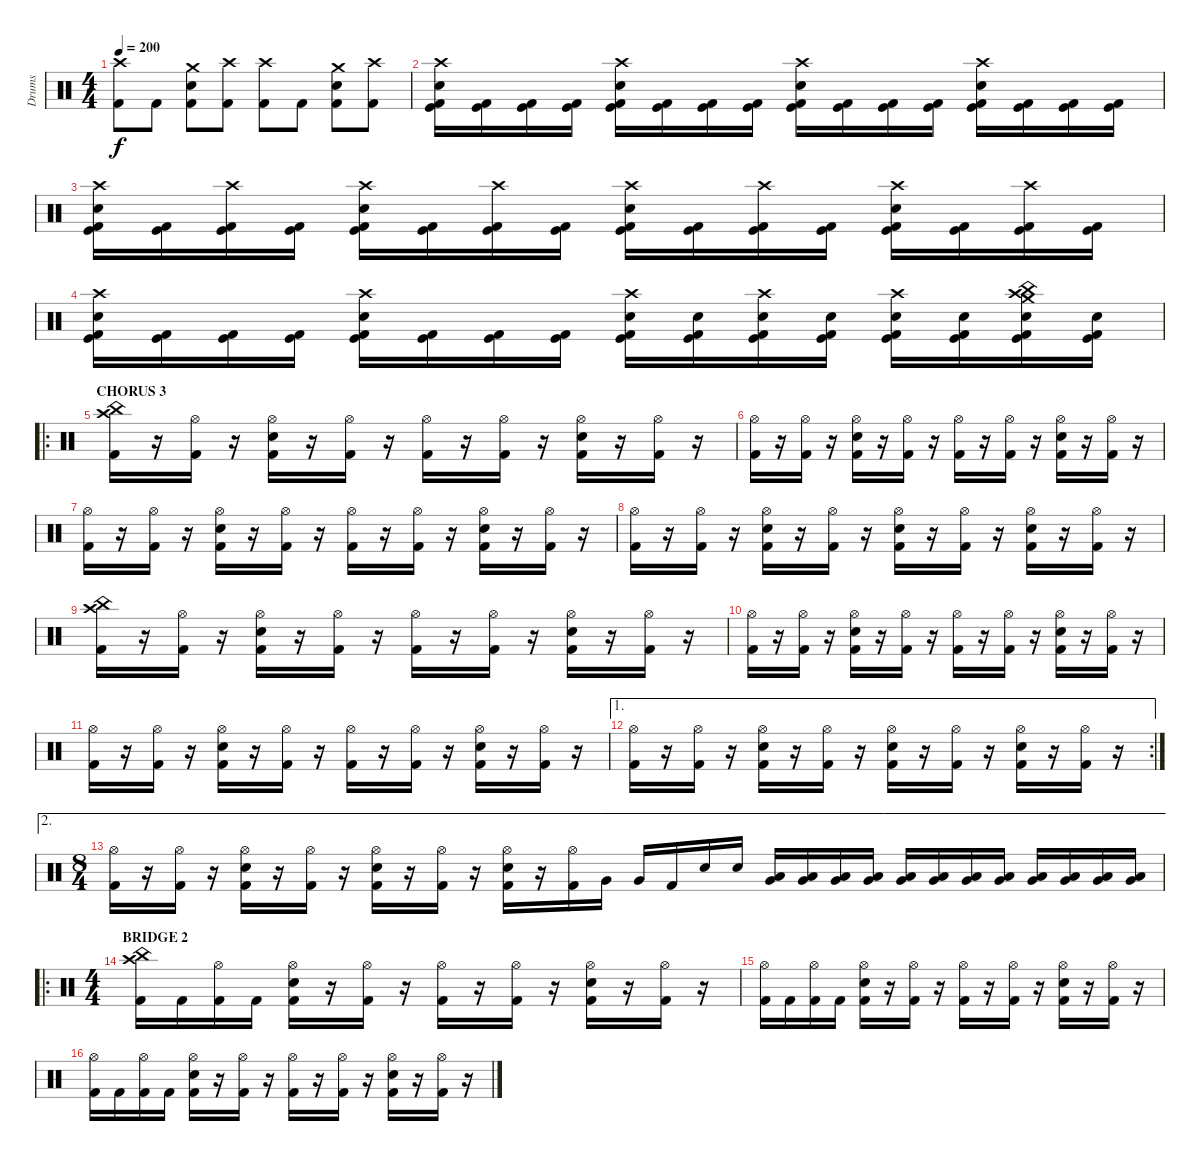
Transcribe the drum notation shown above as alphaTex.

\track ("Drums" "Drums") {instrument percussion}
\staff {score}
\articulation defaults
\ts (4 4)
\tempo 200
\clef neutral
\ks c
("Crash high (hit)" "Kick (hit) 2").8{dy f} "Kick (hit) 2".8 ("Crash medium (hit)" "Electric Snare (hit)" "Kick (hit) 2").8 ("Crash high (hit)" "Kick (hit) 2").8 ("Crash high (hit)" "Kick (hit) 2").8 "Kick (hit) 2".8 ("Crash medium (hit)" "Electric Snare (hit)" "Kick (hit) 2").8 ("Crash high (hit)" "Kick (hit) 2").8 |
("Crash high (hit)" "Electric Snare (hit)" "Kick (hit)" "Kick (hit) 2").16 ("Kick (hit)" "Kick (hit) 2").16 ("Kick (hit)" "Kick (hit) 2").16 ("Kick (hit)" "Kick (hit) 2").16 ("Crash high (hit)" "Electric Snare (hit)" "Kick (hit)" "Kick (hit) 2").16 ("Kick (hit)" "Kick (hit) 2").16 ("Kick (hit)" "Kick (hit) 2").16 ("Kick (hit)" "Kick (hit) 2").16 ("Crash high (hit)" "Electric Snare (hit)" "Kick (hit)" "Kick (hit) 2").16 ("Kick (hit)" "Kick (hit) 2").16 ("Kick (hit)" "Kick (hit) 2").16 ("Kick (hit)" "Kick (hit) 2").16 ("Crash high (hit)" "Electric Snare (hit)" "Kick (hit)" "Kick (hit) 2").16 ("Kick (hit)" "Kick (hit) 2").16 ("Kick (hit)" "Kick (hit) 2").16 ("Kick (hit)" "Kick (hit) 2").16 |
("Crash high (hit)" "Electric Snare (hit)" "Kick (hit)" "Kick (hit) 2").16 ("Kick (hit)" "Kick (hit) 2").16 ("Crash high (hit)" "Kick (hit)" "Kick (hit) 2").16 ("Kick (hit)" "Kick (hit) 2").16 ("Crash high (hit)" "Electric Snare (hit)" "Kick (hit)" "Kick (hit) 2").16 ("Kick (hit)" "Kick (hit) 2").16 ("Crash high (hit)" "Kick (hit)" "Kick (hit) 2").16 ("Kick (hit)" "Kick (hit) 2").16 ("Crash high (hit)" "Electric Snare (hit)" "Kick (hit)" "Kick (hit) 2").16 ("Kick (hit)" "Kick (hit) 2").16 ("Crash high (hit)" "Kick (hit)" "Kick (hit) 2").16 ("Kick (hit)" "Kick (hit) 2").16 ("Crash high (hit)" "Electric Snare (hit)" "Kick (hit)" "Kick (hit) 2").16 ("Kick (hit)" "Kick (hit) 2").16 ("Crash high (hit)" "Kick (hit)" "Kick (hit) 2").16 ("Kick (hit)" "Kick (hit) 2").16 |
("Crash high (hit)" "Electric Snare (hit)" "Kick (hit)" "Kick (hit) 2").16 ("Kick (hit)" "Kick (hit) 2").16 ("Kick (hit)" "Kick (hit) 2").16 ("Kick (hit)" "Kick (hit) 2").16 ("Crash high (hit)" "Electric Snare (hit)" "Kick (hit)" "Kick (hit) 2").16 ("Kick (hit)" "Kick (hit) 2").16 ("Kick (hit)" "Kick (hit) 2").16 ("Kick (hit)" "Kick (hit) 2").16 ("Crash high (hit)" "Electric Snare (hit)" "Kick (hit)" "Kick (hit) 2").16 ("Electric Snare (hit)" "Kick (hit)" "Kick (hit) 2").16 ("Crash high (hit)" "Electric Snare (hit)" "Kick (hit)" "Kick (hit) 2").16 ("Electric Snare (hit)" "Kick (hit)" "Kick (hit) 2").16 ("Crash high (hit)" "Electric Snare (hit)" "Kick (hit)" "Kick (hit) 2").16 ("Electric Snare (hit)" "Kick (hit)" "Kick (hit) 2").16 ("China (hit)" "Crash high (hit)" "Crash medium (hit)" "Electric Snare (hit)" "Kick (hit)" "Kick (hit) 2").16 ("Electric Snare (hit)" "Kick (hit)" "Kick (hit) 2").16 |
\ro
\section ("" "CHORUS 3")
("Crash high (hit)" "China (hit)" "Kick (hit) 2").16 r.16 ("Hi-Hat (open)" "Kick (hit) 2").16 r.16 ("Hi-Hat (open)" "Electric Snare (hit)" "Kick (hit) 2").16 r.16 ("Hi-Hat (open)" "Kick (hit) 2").16 r.16 ("Hi-Hat (open)" "Kick (hit) 2").16 r.16 ("Hi-Hat (open)" "Kick (hit) 2").16 r.16 ("Hi-Hat (open)" "Electric Snare (hit)" "Kick (hit) 2").16 r.16 ("Hi-Hat (open)" "Kick (hit) 2").16 r.16 |
("Hi-Hat (open)" "Kick (hit) 2").16 r.16 ("Hi-Hat (open)" "Kick (hit) 2").16 r.16 ("Hi-Hat (open)" "Electric Snare (hit)" "Kick (hit) 2").16 r.16 ("Hi-Hat (open)" "Kick (hit) 2").16 r.16 ("Hi-Hat (open)" "Kick (hit) 2").16 r.16 ("Hi-Hat (open)" "Kick (hit) 2").16 r.16 ("Hi-Hat (open)" "Electric Snare (hit)" "Kick (hit) 2").16 r.16 ("Hi-Hat (open)" "Kick (hit) 2").16 r.16 |
("Hi-Hat (open)" "Kick (hit) 2").16 r.16 ("Hi-Hat (open)" "Kick (hit) 2").16 r.16 ("Hi-Hat (open)" "Electric Snare (hit)" "Kick (hit) 2").16 r.16 ("Hi-Hat (open)" "Kick (hit) 2").16 r.16 ("Hi-Hat (open)" "Kick (hit) 2").16 r.16 ("Hi-Hat (open)" "Kick (hit) 2").16 r.16 ("Hi-Hat (open)" "Electric Snare (hit)" "Kick (hit) 2").16 r.16 ("Hi-Hat (open)" "Kick (hit) 2").16 r.16 |
("Hi-Hat (open)" "Kick (hit) 2").16 r.16 ("Hi-Hat (open)" "Kick (hit) 2").16 r.16 ("Hi-Hat (open)" "Electric Snare (hit)" "Kick (hit) 2").16 r.16 ("Hi-Hat (open)" "Kick (hit) 2").16 r.16 ("Hi-Hat (open)" "Electric Snare (hit)" "Kick (hit) 2").16 r.16 ("Hi-Hat (open)" "Kick (hit) 2").16 r.16 ("Hi-Hat (open)" "Electric Snare (hit)" "Kick (hit) 2").16 r.16 ("Hi-Hat (open)" "Kick (hit) 2").16 r.16 |
("Crash high (hit)" "China (hit)" "Kick (hit) 2").16 r.16 ("Hi-Hat (open)" "Kick (hit) 2").16 r.16 ("Hi-Hat (open)" "Electric Snare (hit)" "Kick (hit) 2").16 r.16 ("Hi-Hat (open)" "Kick (hit) 2").16 r.16 ("Hi-Hat (open)" "Kick (hit) 2").16 r.16 ("Hi-Hat (open)" "Kick (hit) 2").16 r.16 ("Hi-Hat (open)" "Electric Snare (hit)" "Kick (hit) 2").16 r.16 ("Hi-Hat (open)" "Kick (hit) 2").16 r.16 |
("Hi-Hat (open)" "Kick (hit) 2").16 r.16 ("Hi-Hat (open)" "Kick (hit) 2").16 r.16 ("Hi-Hat (open)" "Electric Snare (hit)" "Kick (hit) 2").16 r.16 ("Hi-Hat (open)" "Kick (hit) 2").16 r.16 ("Hi-Hat (open)" "Kick (hit) 2").16 r.16 ("Hi-Hat (open)" "Kick (hit) 2").16 r.16 ("Hi-Hat (open)" "Electric Snare (hit)" "Kick (hit) 2").16 r.16 ("Hi-Hat (open)" "Kick (hit) 2").16 r.16 |
("Hi-Hat (open)" "Kick (hit) 2").16 r.16 ("Hi-Hat (open)" "Kick (hit) 2").16 r.16 ("Hi-Hat (open)" "Electric Snare (hit)" "Kick (hit) 2").16 r.16 ("Hi-Hat (open)" "Kick (hit) 2").16 r.16 ("Hi-Hat (open)" "Kick (hit) 2").16 r.16 ("Hi-Hat (open)" "Kick (hit) 2").16 r.16 ("Hi-Hat (open)" "Electric Snare (hit)" "Kick (hit) 2").16 r.16 ("Hi-Hat (open)" "Kick (hit) 2").16 r.16 |
\ae 1
\rc 2
("Hi-Hat (open)" "Kick (hit) 2").16 r.16 ("Hi-Hat (open)" "Kick (hit) 2").16 r.16 ("Hi-Hat (open)" "Electric Snare (hit)" "Kick (hit) 2").16 r.16 ("Hi-Hat (open)" "Kick (hit) 2").16 r.16 ("Hi-Hat (open)" "Electric Snare (hit)" "Kick (hit) 2").16 r.16 ("Hi-Hat (open)" "Kick (hit) 2").16 r.16 ("Hi-Hat (open)" "Electric Snare (hit)" "Kick (hit) 2").16 r.16 ("Hi-Hat (open)" "Kick (hit) 2").16 r.16 |
\ae 2
\ts (8 4)
("Hi-Hat (open)" "Kick (hit) 2").16 r.16 ("Hi-Hat (open)" "Kick (hit) 2").16 r.16 ("Hi-Hat (open)" "Electric Snare (hit)" "Kick (hit) 2").16 r.16 ("Hi-Hat (open)" "Kick (hit) 2").16 r.16 ("Hi-Hat (open)" "Electric Snare (hit)" "Kick (hit) 2").16 r.16 ("Hi-Hat (open)" "Kick (hit) 2").16 r.16 ("Hi-Hat (open)" "Electric Snare (hit)" "Kick (hit) 2").16 r.16 ("Hi-Hat (open)" "Kick (hit) 2").16 "Very Low Tom (hit)".16 "Very Low Tom (hit)".16 "Kick (hit) 2".16 "Electric Snare (hit)".16 "Electric Snare (hit)".16 ("Very Low Tom (hit)" "Low Floor Tom (hit)").16 ("Very Low Tom (hit)" "Low Floor Tom (hit)").16 ("Very Low Tom (hit)" "Low Floor Tom (hit)").16 ("Very Low Tom (hit)" "Low Floor Tom (hit)").16 ("Very Low Tom (hit)" "Low Floor Tom (hit)").16 ("Very Low Tom (hit)" "Low Floor Tom (hit)").16 ("Very Low Tom (hit)" "Low Floor Tom (hit)").16 ("Very Low Tom (hit)" "Low Floor Tom (hit)").16 ("Very Low Tom (hit)" "Low Floor Tom (hit)").16 ("Very Low Tom (hit)" "Low Floor Tom (hit)").16 ("Very Low Tom (hit)" "Low Floor Tom (hit)").16 ("Very Low Tom (hit)" "Low Floor Tom (hit)").16 |
\ro
\ts (4 4)
\section ("" "BRIDGE 2")
("Crash high (hit)" "China (hit)" "Kick (hit) 2").16 "Kick (hit) 2".16 ("Hi-Hat (open)" "Kick (hit) 2").16 "Kick (hit) 2".16 ("Hi-Hat (open)" "Electric Snare (hit)" "Kick (hit) 2").16 r.16 ("Hi-Hat (open)" "Kick (hit) 2").16 r.16 ("Hi-Hat (open)" "Kick (hit) 2").16 r.16 ("Hi-Hat (open)" "Kick (hit) 2").16 r.16 ("Hi-Hat (open)" "Electric Snare (hit)" "Kick (hit) 2").16 r.16 ("Hi-Hat (open)" "Kick (hit) 2").16 r.16 |
("Hi-Hat (open)" "Kick (hit) 2").16 "Kick (hit) 2".16 ("Hi-Hat (open)" "Kick (hit) 2").16 "Kick (hit) 2".16 ("Hi-Hat (open)" "Electric Snare (hit)" "Kick (hit) 2").16 r.16 ("Hi-Hat (open)" "Kick (hit) 2").16 r.16 ("Hi-Hat (open)" "Kick (hit) 2").16 r.16 ("Hi-Hat (open)" "Kick (hit) 2").16 r.16 ("Hi-Hat (open)" "Electric Snare (hit)" "Kick (hit) 2").16 r.16 ("Hi-Hat (open)" "Kick (hit) 2").16 r.16 |
("Hi-Hat (open)" "Kick (hit) 2").16 "Kick (hit) 2".16 ("Hi-Hat (open)" "Kick (hit) 2").16 "Kick (hit) 2".16 ("Hi-Hat (open)" "Electric Snare (hit)" "Kick (hit) 2").16 r.16 ("Hi-Hat (open)" "Kick (hit) 2").16 r.16 ("Hi-Hat (open)" "Kick (hit) 2").16 r.16 ("Hi-Hat (open)" "Kick (hit) 2").16 r.16 ("Hi-Hat (open)" "Electric Snare (hit)" "Kick (hit) 2").16 r.16 ("Hi-Hat (open)" "Kick (hit) 2").16 r.16
